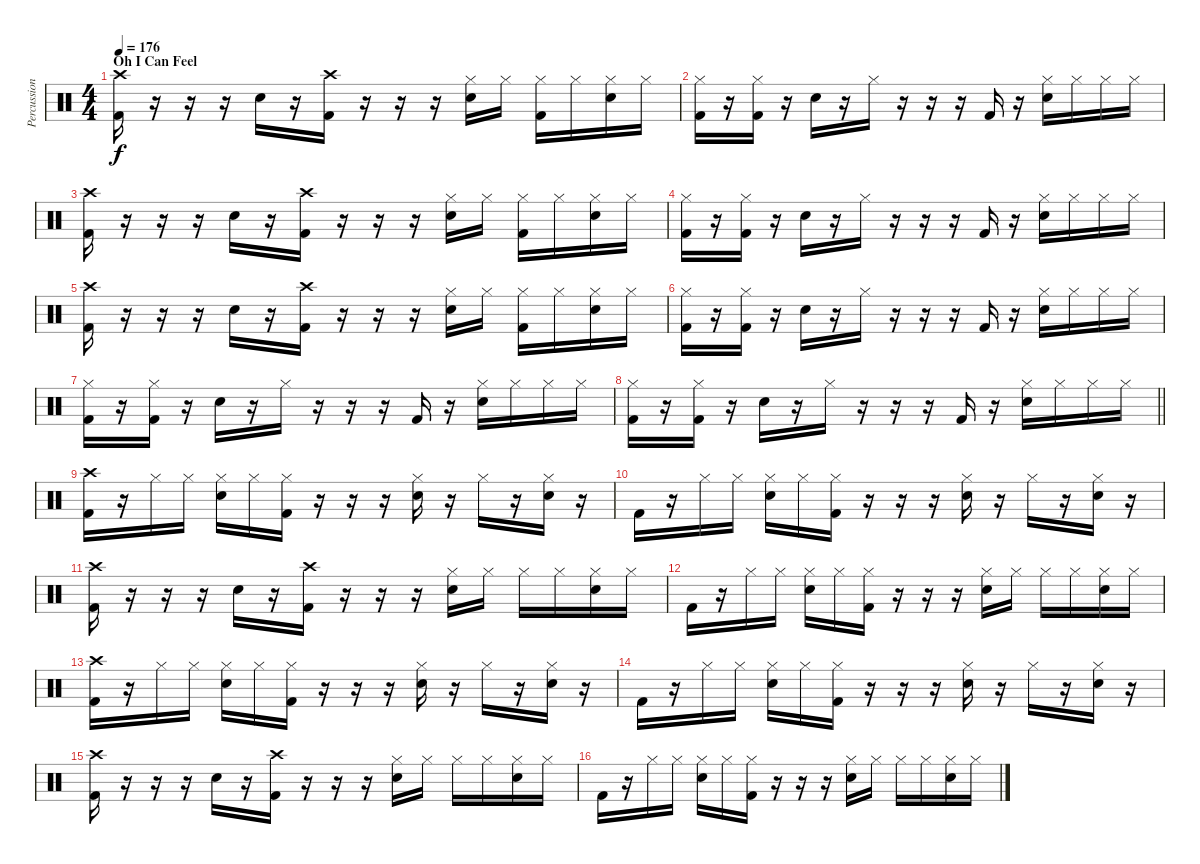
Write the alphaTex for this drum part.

\track ("Percussion" "Percussion") {instrument percussion}
\staff {score}
\articulation defaults
\ts (4 4)
\section ("" "Oh I Can Feel")
\tempo 176
\clef neutral
\ks c
("Kick (hit) 2" "Crash high (hit)").16{dy f} r.16 r.16 r.16 "Electric Snare (hit)".16 r.16 ("Kick (hit) 2" "Crash high (hit)").16 r.16 r.16 r.16 ("Electric Snare (hit)" "Hi-Hat (closed)").16 "Hi-Hat (closed)".16 ("Kick (hit) 2" "Hi-Hat (closed)").16 "Hi-Hat (closed)".16 ("Electric Snare (hit)" "Hi-Hat (closed)").16 "Hi-Hat (closed)".16 |
("Kick (hit) 2" "Hi-Hat (closed)").16 r.16 ("Kick (hit) 2" "Hi-Hat (closed)").16 r.16 "Electric Snare (hit)".16 r.16 "Hi-Hat (closed)".16 r.16 r.16 r.16 "Kick (hit) 2".16 r.16 ("Electric Snare (hit)" "Hi-Hat (closed)").16 "Hi-Hat (closed)".16 "Hi-Hat (closed)".16 "Hi-Hat (closed)".16 |
("Kick (hit) 2" "Crash high (hit)").16 r.16 r.16 r.16 "Electric Snare (hit)".16 r.16 ("Kick (hit) 2" "Crash high (hit)").16 r.16 r.16 r.16 ("Electric Snare (hit)" "Hi-Hat (closed)").16 "Hi-Hat (closed)".16 ("Kick (hit) 2" "Hi-Hat (closed)").16 "Hi-Hat (closed)".16 ("Electric Snare (hit)" "Hi-Hat (closed)").16 "Hi-Hat (closed)".16 |
("Kick (hit) 2" "Hi-Hat (closed)").16 r.16 ("Kick (hit) 2" "Hi-Hat (closed)").16 r.16 "Electric Snare (hit)".16 r.16 "Hi-Hat (closed)".16 r.16 r.16 r.16 "Kick (hit) 2".16 r.16 ("Electric Snare (hit)" "Hi-Hat (closed)").16 "Hi-Hat (closed)".16 "Hi-Hat (closed)".16 "Hi-Hat (closed)".16 |
("Kick (hit) 2" "Crash high (hit)").16 r.16 r.16 r.16 "Electric Snare (hit)".16 r.16 ("Kick (hit) 2" "Crash high (hit)").16 r.16 r.16 r.16 ("Electric Snare (hit)" "Hi-Hat (closed)").16 "Hi-Hat (closed)".16 ("Kick (hit) 2" "Hi-Hat (closed)").16 "Hi-Hat (closed)".16 ("Electric Snare (hit)" "Hi-Hat (closed)").16 "Hi-Hat (closed)".16 |
("Kick (hit) 2" "Hi-Hat (closed)").16 r.16 ("Kick (hit) 2" "Hi-Hat (closed)").16 r.16 "Electric Snare (hit)".16 r.16 "Hi-Hat (closed)".16 r.16 r.16 r.16 "Kick (hit) 2".16 r.16 ("Electric Snare (hit)" "Hi-Hat (closed)").16 "Hi-Hat (closed)".16 "Hi-Hat (closed)".16 "Hi-Hat (closed)".16 |
("Kick (hit) 2" "Hi-Hat (closed)").16 r.16 ("Kick (hit) 2" "Hi-Hat (closed)").16 r.16 "Electric Snare (hit)".16 r.16 "Hi-Hat (closed)".16 r.16 r.16 r.16 "Kick (hit) 2".16 r.16 ("Electric Snare (hit)" "Hi-Hat (closed)").16 "Hi-Hat (closed)".16 "Hi-Hat (closed)".16 "Hi-Hat (closed)".16 |
\barLineRight lightlight
("Kick (hit) 2" "Hi-Hat (closed)").16 r.16 ("Kick (hit) 2" "Hi-Hat (closed)").16 r.16 "Electric Snare (hit)".16 r.16 "Hi-Hat (closed)".16 r.16 r.16 r.16 "Kick (hit) 2".16 r.16 ("Electric Snare (hit)" "Hi-Hat (closed)").16 "Hi-Hat (closed)".16 "Hi-Hat (closed)".16 "Hi-Hat (closed)".16 |
("Kick (hit) 2" "Crash high (hit)").16 r.16 "Hi-Hat (closed)".16 "Hi-Hat (closed)".16 ("Electric Snare (hit)" "Hi-Hat (closed)").16 "Hi-Hat (closed)".16 ("Kick (hit) 2" "Hi-Hat (closed)").16 r.16 r.16 r.16 ("Electric Snare (hit)" "Hi-Hat (closed)").16 r.16 "Hi-Hat (closed)".16 r.16 ("Electric Snare (hit)" "Hi-Hat (closed)").16 r.16 |
"Kick (hit) 2".16 r.16 "Hi-Hat (closed)".16 "Hi-Hat (closed)".16 ("Electric Snare (hit)" "Hi-Hat (closed)").16 "Hi-Hat (closed)".16 ("Kick (hit) 2" "Hi-Hat (closed)").16 r.16 r.16 r.16 ("Electric Snare (hit)" "Hi-Hat (closed)").16 r.16 "Hi-Hat (closed)".16 r.16 ("Electric Snare (hit)" "Hi-Hat (closed)").16 r.16 |
("Kick (hit) 2" "Crash high (hit)").16 r.16 r.16 r.16 "Electric Snare (hit)".16 r.16 ("Kick (hit) 2" "Crash high (hit)").16 r.16 r.16 r.16 ("Electric Snare (hit)" "Hi-Hat (closed)").16 "Hi-Hat (closed)".16 "Hi-Hat (closed)".16 "Hi-Hat (closed)".16 ("Electric Snare (hit)" "Hi-Hat (closed)").16 "Hi-Hat (closed)".16 |
"Kick (hit) 2".16 r.16 "Hi-Hat (closed)".16 "Hi-Hat (closed)".16 ("Electric Snare (hit)" "Hi-Hat (closed)").16 "Hi-Hat (closed)".16 ("Kick (hit) 2" "Hi-Hat (closed)").16 r.16 r.16 r.16 ("Electric Snare (hit)" "Hi-Hat (closed)").16 "Hi-Hat (closed)".16 "Hi-Hat (closed)".16 "Hi-Hat (closed)".16 ("Electric Snare (hit)" "Hi-Hat (closed)").16 "Hi-Hat (closed)".16 |
("Kick (hit) 2" "Crash high (hit)").16 r.16 "Hi-Hat (closed)".16 "Hi-Hat (closed)".16 ("Electric Snare (hit)" "Hi-Hat (closed)").16 "Hi-Hat (closed)".16 ("Kick (hit) 2" "Hi-Hat (closed)").16 r.16 r.16 r.16 ("Electric Snare (hit)" "Hi-Hat (closed)").16 r.16 "Hi-Hat (closed)".16 r.16 ("Electric Snare (hit)" "Hi-Hat (closed)").16 r.16 |
"Kick (hit) 2".16 r.16 "Hi-Hat (closed)".16 "Hi-Hat (closed)".16 ("Electric Snare (hit)" "Hi-Hat (closed)").16 "Hi-Hat (closed)".16 ("Kick (hit) 2" "Hi-Hat (closed)").16 r.16 r.16 r.16 ("Electric Snare (hit)" "Hi-Hat (closed)").16 r.16 "Hi-Hat (closed)".16 r.16 ("Electric Snare (hit)" "Hi-Hat (closed)").16 r.16 |
("Kick (hit) 2" "Crash high (hit)").16 r.16 r.16 r.16 "Electric Snare (hit)".16 r.16 ("Kick (hit) 2" "Crash high (hit)").16 r.16 r.16 r.16 ("Electric Snare (hit)" "Hi-Hat (closed)").16 "Hi-Hat (closed)".16 "Hi-Hat (closed)".16 "Hi-Hat (closed)".16 ("Electric Snare (hit)" "Hi-Hat (closed)").16 "Hi-Hat (closed)".16 |
"Kick (hit) 2".16 r.16 "Hi-Hat (closed)".16 "Hi-Hat (closed)".16 ("Electric Snare (hit)" "Hi-Hat (closed)").16 "Hi-Hat (closed)".16 ("Kick (hit) 2" "Hi-Hat (closed)").16 r.16 r.16 r.16 ("Electric Snare (hit)" "Hi-Hat (closed)").16 "Hi-Hat (closed)".16 "Hi-Hat (closed)".16 "Hi-Hat (closed)".16 ("Electric Snare (hit)" "Hi-Hat (closed)").16 "Hi-Hat (closed)".16
